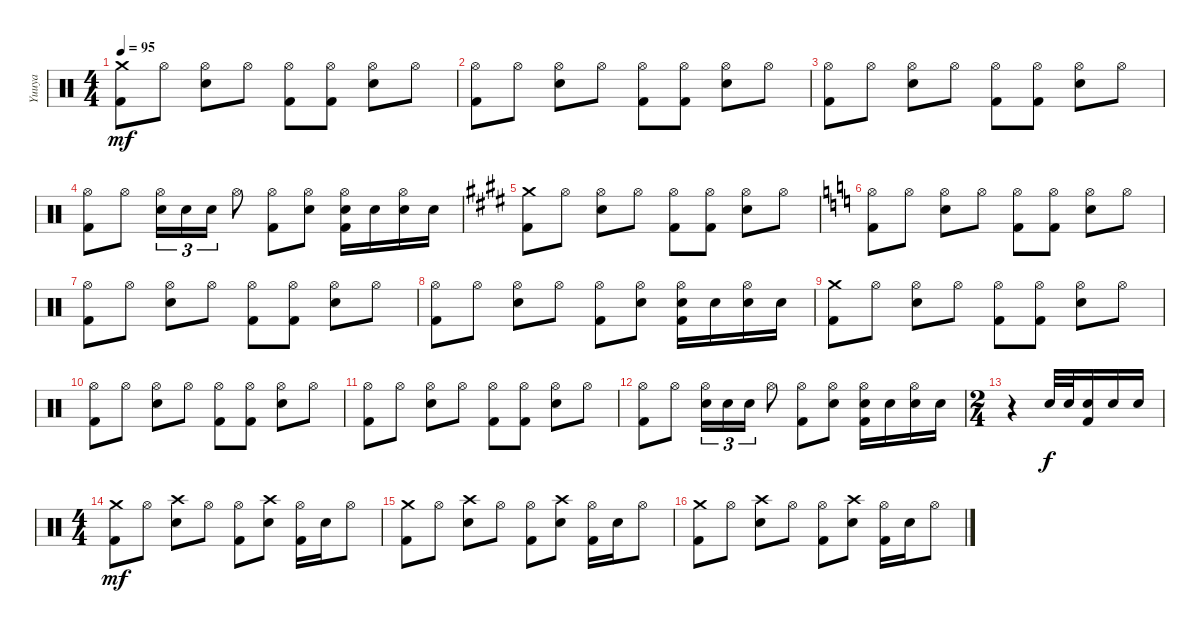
\track ("Yuuya" "Yuuya") {instrument percussion}
\staff {score}
\articulation defaults
\ts (4 4)
\tempo 95
\clef neutral
\ks c
("Crash medium (hit)" "Kick (hit) 2").8{dy mf} "Hi-Hat (open)".8 ("Hi-Hat (open)" "Snare (hit) 2").8 "Hi-Hat (open)".8 ("Hi-Hat (open)" "Kick (hit) 2").8 ("Hi-Hat (open)" "Kick (hit) 2").8 ("Hi-Hat (open)" "Snare (hit) 2").8 "Hi-Hat (open)".8 |
("Hi-Hat (open)" "Kick (hit) 2").8 "Hi-Hat (open)".8 ("Hi-Hat (open)" "Snare (hit) 2").8 "Hi-Hat (open)".8 ("Hi-Hat (open)" "Kick (hit) 2").8 ("Hi-Hat (open)" "Kick (hit) 2").8 ("Hi-Hat (open)" "Snare (hit) 2").8 "Hi-Hat (open)".8 |
("Hi-Hat (open)" "Kick (hit) 2").8 "Hi-Hat (open)".8 ("Hi-Hat (open)" "Snare (hit) 2").8 "Hi-Hat (open)".8 ("Hi-Hat (open)" "Kick (hit) 2").8 ("Hi-Hat (open)" "Kick (hit) 2").8 ("Hi-Hat (open)" "Snare (hit) 2").8 "Hi-Hat (open)".8 |
("Hi-Hat (open)" "Kick (hit) 2").8 "Hi-Hat (open)".8 ("Hi-Hat (open)" "Snare (hit) 2").16{tu (3 2)} "Snare (hit) 2".16{tu (3 2)} "Snare (hit) 2".16{tu (3 2)} "Hi-Hat (open)".8 ("Hi-Hat (open)" "Kick (hit) 2").8 ("Hi-Hat (open)" "Snare (hit) 2").8 ("Hi-Hat (open)" "Snare (hit) 2" "Kick (hit) 2").16 "Snare (hit) 2".16 ("Hi-Hat (open)" "Snare (hit) 2").16 "Snare (hit) 2".16 |
\ks e
("Crash medium (hit)" "Kick (hit) 2").8 "Hi-Hat (open)".8 ("Hi-Hat (open)" "Snare (hit) 2").8 "Hi-Hat (open)".8 ("Hi-Hat (open)" "Kick (hit) 2").8 ("Hi-Hat (open)" "Kick (hit) 2").8 ("Hi-Hat (open)" "Snare (hit) 2").8 "Hi-Hat (open)".8 |
\ks c
("Hi-Hat (open)" "Kick (hit) 2").8 "Hi-Hat (open)".8 ("Hi-Hat (open)" "Snare (hit) 2").8 "Hi-Hat (open)".8 ("Hi-Hat (open)" "Kick (hit) 2").8 ("Hi-Hat (open)" "Kick (hit) 2").8 ("Hi-Hat (open)" "Snare (hit) 2").8 "Hi-Hat (open)".8 |
("Hi-Hat (open)" "Kick (hit) 2").8 "Hi-Hat (open)".8 ("Hi-Hat (open)" "Snare (hit) 2").8 "Hi-Hat (open)".8 ("Hi-Hat (open)" "Kick (hit) 2").8 ("Hi-Hat (open)" "Kick (hit) 2").8 ("Hi-Hat (open)" "Snare (hit) 2").8 "Hi-Hat (open)".8 |
("Hi-Hat (open)" "Kick (hit) 2").8 "Hi-Hat (open)".8 ("Hi-Hat (open)" "Snare (hit) 2").8 "Hi-Hat (open)".8 ("Hi-Hat (open)" "Kick (hit) 2").8 ("Hi-Hat (open)" "Snare (hit) 2").8 ("Hi-Hat (open)" "Snare (hit) 2" "Kick (hit) 2").16 "Snare (hit) 2".16 ("Hi-Hat (open)" "Snare (hit) 2").16 "Snare (hit) 2".16 |
("Crash medium (hit)" "Kick (hit) 2").8 "Hi-Hat (open)".8 ("Hi-Hat (open)" "Snare (hit) 2").8 "Hi-Hat (open)".8 ("Hi-Hat (open)" "Kick (hit) 2").8 ("Hi-Hat (open)" "Kick (hit) 2").8 ("Hi-Hat (open)" "Snare (hit) 2").8 "Hi-Hat (open)".8 |
("Hi-Hat (open)" "Kick (hit) 2").8 "Hi-Hat (open)".8 ("Hi-Hat (open)" "Snare (hit) 2").8 "Hi-Hat (open)".8 ("Hi-Hat (open)" "Kick (hit) 2").8 ("Hi-Hat (open)" "Kick (hit) 2").8 ("Hi-Hat (open)" "Snare (hit) 2").8 "Hi-Hat (open)".8 |
("Hi-Hat (open)" "Kick (hit) 2").8 "Hi-Hat (open)".8 ("Hi-Hat (open)" "Snare (hit) 2").8 "Hi-Hat (open)".8 ("Hi-Hat (open)" "Kick (hit) 2").8 ("Hi-Hat (open)" "Kick (hit) 2").8 ("Hi-Hat (open)" "Snare (hit) 2").8 "Hi-Hat (open)".8 |
("Hi-Hat (open)" "Kick (hit) 2").8 "Hi-Hat (open)".8 ("Hi-Hat (open)" "Snare (hit) 2").16{tu (3 2)} "Snare (hit) 2".16{tu (3 2)} "Snare (hit) 2".16{tu (3 2)} "Hi-Hat (open)".8 ("Hi-Hat (open)" "Kick (hit) 2").8 ("Hi-Hat (open)" "Snare (hit) 2").8 ("Hi-Hat (open)" "Snare (hit) 2" "Kick (hit) 2").16 "Snare (hit) 2".16 ("Hi-Hat (open)" "Snare (hit) 2").16 "Snare (hit) 2".16 |
\ts (2 4)
r.4 "Snare (hit) 2".32{dy f} "Snare (hit) 2".32 ("Snare (hit) 2" "Kick (hit) 2").16 "Snare (hit) 2".16 "Snare (hit) 2".16 |
\ts (4 4)
("Crash medium (hit)" "Kick (hit) 2").8{dy mf} "Hi-Hat (open)".8 ("Crash high (hit)" "Snare (hit) 2").8 "Hi-Hat (open)".8 ("Hi-Hat (open)" "Kick (hit) 2").8 ("Crash high (hit)" "Snare (hit) 2").8 ("Hi-Hat (open)" "Kick (hit) 2").16 "Snare (hit) 2".16 "Hi-Hat (open)".8 |
("Crash medium (hit)" "Kick (hit) 2").8 "Hi-Hat (open)".8 ("Crash high (hit)" "Snare (hit) 2").8 "Hi-Hat (open)".8 ("Hi-Hat (open)" "Kick (hit) 2").8 ("Crash high (hit)" "Snare (hit) 2").8 ("Hi-Hat (open)" "Kick (hit) 2").16 "Snare (hit) 2".16 "Hi-Hat (open)".8 |
("Crash medium (hit)" "Kick (hit) 2").8 "Hi-Hat (open)".8 ("Crash high (hit)" "Snare (hit) 2").8 "Hi-Hat (open)".8 ("Hi-Hat (open)" "Kick (hit) 2").8 ("Crash high (hit)" "Snare (hit) 2").8 ("Hi-Hat (open)" "Kick (hit) 2").16 "Snare (hit) 2".16 "Hi-Hat (open)".8
